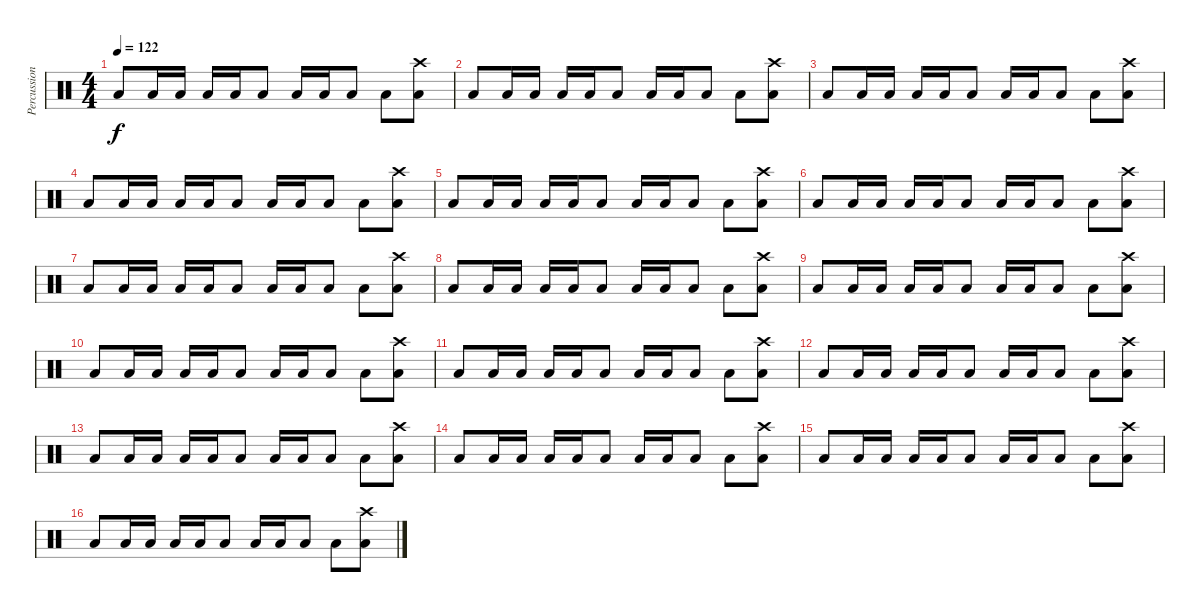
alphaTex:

\track ("Percussion" "Percussion") {instrument percussion}
\staff {score}
\articulation defaults
\ts (4 4)
\tempo 122
\clef neutral
\ks c "Low Tom (hit)".8{dy f} "Low Tom (hit)".16 "Low Tom (hit)".16 "Low Tom (hit)".16 "Low Tom (hit)".16 "Low Tom (hit)".8 "Low Tom (hit)".16 "Low Tom (hit)".16 "Low Tom (hit)".8 "Low Tom (hit)".8
("Low Tom (hit)" "Crash high (hit)").8 |
"Low Tom (hit)".8 "Low Tom (hit)".16 "Low Tom (hit)".16 "Low Tom (hit)".16 "Low Tom (hit)".16 "Low Tom (hit)".8 "Low Tom (hit)".16 "Low Tom (hit)".16 "Low Tom (hit)".8 "Low Tom (hit)".8 ("Low Tom (hit)" "Crash high (hit)").8 |
"Low Tom (hit)".8 "Low Tom (hit)".16 "Low Tom (hit)".16 "Low Tom (hit)".16 "Low Tom (hit)".16 "Low Tom (hit)".8 "Low Tom (hit)".16 "Low Tom (hit)".16 "Low Tom (hit)".8 "Low Tom (hit)".8 ("Low Tom (hit)" "Crash high (hit)").8 |
"Low Tom (hit)".8 "Low Tom (hit)".16 "Low Tom (hit)".16 "Low Tom (hit)".16 "Low Tom (hit)".16 "Low Tom (hit)".8 "Low Tom (hit)".16 "Low Tom (hit)".16 "Low Tom (hit)".8 "Low Tom (hit)".8 ("Low Tom (hit)" "Crash high (hit)").8 |
"Low Tom (hit)".8 "Low Tom (hit)".16 "Low Tom (hit)".16 "Low Tom (hit)".16 "Low Tom (hit)".16 "Low Tom (hit)".8 "Low Tom (hit)".16 "Low Tom (hit)".16 "Low Tom (hit)".8 "Low Tom (hit)".8 ("Low Tom (hit)" "Crash high (hit)").8 |
"Low Tom (hit)".8 "Low Tom (hit)".16 "Low Tom (hit)".16 "Low Tom (hit)".16 "Low Tom (hit)".16 "Low Tom (hit)".8 "Low Tom (hit)".16 "Low Tom (hit)".16 "Low Tom (hit)".8 "Low Tom (hit)".8 ("Low Tom (hit)" "Crash high (hit)").8 |
"Low Tom (hit)".8 "Low Tom (hit)".16 "Low Tom (hit)".16 "Low Tom (hit)".16 "Low Tom (hit)".16 "Low Tom (hit)".8 "Low Tom (hit)".16 "Low Tom (hit)".16 "Low Tom (hit)".8 "Low Tom (hit)".8 ("Low Tom (hit)" "Crash high (hit)").8 |
"Low Tom (hit)".8 "Low Tom (hit)".16 "Low Tom (hit)".16 "Low Tom (hit)".16 "Low Tom (hit)".16 "Low Tom (hit)".8 "Low Tom (hit)".16 "Low Tom (hit)".16 "Low Tom (hit)".8 "Low Tom (hit)".8 ("Low Tom (hit)" "Crash high (hit)").8 |
"Low Tom (hit)".8 "Low Tom (hit)".16 "Low Tom (hit)".16 "Low Tom (hit)".16 "Low Tom (hit)".16 "Low Tom (hit)".8 "Low Tom (hit)".16 "Low Tom (hit)".16 "Low Tom (hit)".8 "Low Tom (hit)".8 ("Low Tom (hit)" "Crash high (hit)").8 |
"Low Tom (hit)".8 "Low Tom (hit)".16 "Low Tom (hit)".16 "Low Tom (hit)".16 "Low Tom (hit)".16 "Low Tom (hit)".8 "Low Tom (hit)".16 "Low Tom (hit)".16 "Low Tom (hit)".8 "Low Tom (hit)".8 ("Low Tom (hit)" "Crash high (hit)").8 |
"Low Tom (hit)".8 "Low Tom (hit)".16 "Low Tom (hit)".16 "Low Tom (hit)".16 "Low Tom (hit)".16 "Low Tom (hit)".8 "Low Tom (hit)".16 "Low Tom (hit)".16 "Low Tom (hit)".8 "Low Tom (hit)".8 ("Low Tom (hit)" "Crash high (hit)").8 |
"Low Tom (hit)".8 "Low Tom (hit)".16 "Low Tom (hit)".16 "Low Tom (hit)".16 "Low Tom (hit)".16 "Low Tom (hit)".8 "Low Tom (hit)".16 "Low Tom (hit)".16 "Low Tom (hit)".8 "Low Tom (hit)".8 ("Low Tom (hit)" "Crash high (hit)").8 |
"Low Tom (hit)".8 "Low Tom (hit)".16 "Low Tom (hit)".16 "Low Tom (hit)".16 "Low Tom (hit)".16 "Low Tom (hit)".8 "Low Tom (hit)".16 "Low Tom (hit)".16 "Low Tom (hit)".8 "Low Tom (hit)".8 ("Low Tom (hit)" "Crash high (hit)").8 |
"Low Tom (hit)".8 "Low Tom (hit)".16 "Low Tom (hit)".16 "Low Tom (hit)".16 "Low Tom (hit)".16 "Low Tom (hit)".8 "Low Tom (hit)".16 "Low Tom (hit)".16 "Low Tom (hit)".8 "Low Tom (hit)".8 ("Low Tom (hit)" "Crash high (hit)").8 |
"Low Tom (hit)".8 "Low Tom (hit)".16 "Low Tom (hit)".16 "Low Tom (hit)".16 "Low Tom (hit)".16 "Low Tom (hit)".8 "Low Tom (hit)".16 "Low Tom (hit)".16 "Low Tom (hit)".8 "Low Tom (hit)".8 ("Low Tom (hit)" "Crash high (hit)").8 |
"Low Tom (hit)".8 "Low Tom (hit)".16 "Low Tom (hit)".16 "Low Tom (hit)".16 "Low Tom (hit)".16 "Low Tom (hit)".8 "Low Tom (hit)".16 "Low Tom (hit)".16 "Low Tom (hit)".8 "Low Tom (hit)".8 ("Low Tom (hit)" "Crash high (hit)").8
